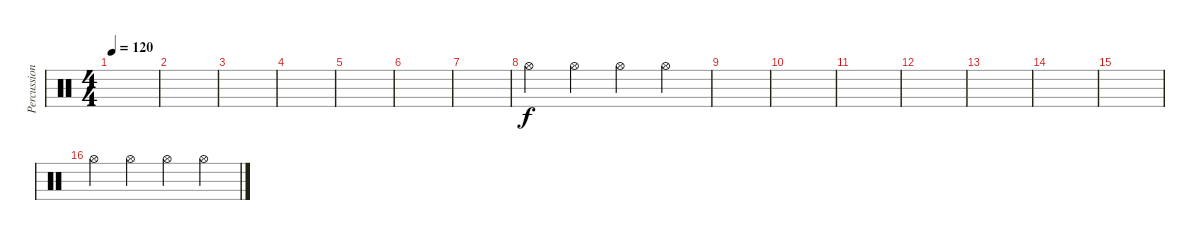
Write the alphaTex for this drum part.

\track ("Percussion 2" "Percussion") {instrument percussion}
\staff {score}
\articulation defaults
\ts (4 4)
\tempo 120
\clef neutral
\ks c
|
|
|
|
|
|
|
"Hi-Hat (open)".4 "Hi-Hat (open)".4 "Hi-Hat (open)".4 "Hi-Hat (open)".4 |
|
|
|
|
|
|
|
"Hi-Hat (open)".4 "Hi-Hat (open)".4 "Hi-Hat (open)".4 "Hi-Hat (open)".4
